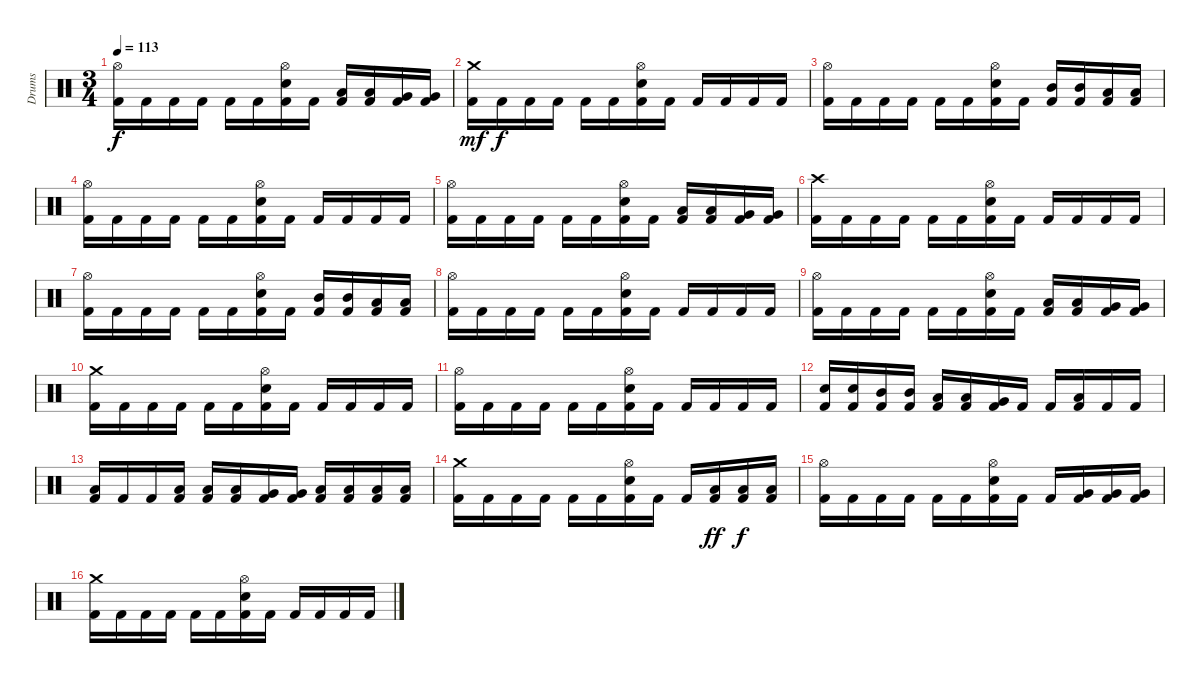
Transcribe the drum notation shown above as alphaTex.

\track ("Drums" "Drums") {instrument percussion}
\staff {score}
\articulation defaults
\ts (3 4)
\tempo 113
\clef neutral
\ks c
("Hi-Hat (open)" "Kick (hit) 2").16{dy f} "Kick (hit) 2".16 "Kick (hit) 2".16 "Kick (hit) 2".16 "Kick (hit) 2".16 "Kick (hit) 2".16 ("Hi-Hat (open)" "Electric Snare (hit)" "Kick (hit) 2").16 "Kick (hit) 2".16 ("Low Tom (hit)" "Kick (hit) 2").16 ("Low Tom (hit)" "Kick (hit) 2").16 ("Very Low Tom (hit)" "Kick (hit) 2").16 ("Very Low Tom (hit)" "Kick (hit) 2").16 |
("Crash medium (hit)" "Kick (hit) 2").16{dy mf} "Kick (hit) 2".16{dy f} "Kick (hit) 2".16 "Kick (hit) 2".16 "Kick (hit) 2".16 "Kick (hit) 2".16 ("Hi-Hat (open)" "Electric Snare (hit)" "Kick (hit) 2").16 "Kick (hit) 2".16 "Kick (hit) 2".16 "Kick (hit) 2".16 "Kick (hit) 2".16 "Kick (hit) 2".16 |
("Hi-Hat (open)" "Kick (hit) 2").16 "Kick (hit) 2".16 "Kick (hit) 2".16 "Kick (hit) 2".16 "Kick (hit) 2".16 "Kick (hit) 2".16 ("Hi-Hat (open)" "Electric Snare (hit)" "Kick (hit) 2").16 "Kick (hit) 2".16 ("Mid Tom (hit)" "Kick (hit) 2").16 ("Mid Tom (hit)" "Kick (hit) 2").16 ("Low Tom (hit)" "Kick (hit) 2").16 ("Low Tom (hit)" "Kick (hit) 2").16 |
("Hi-Hat (open)" "Kick (hit) 2").16 "Kick (hit) 2".16 "Kick (hit) 2".16 "Kick (hit) 2".16 "Kick (hit) 2".16 "Kick (hit) 2".16 ("Hi-Hat (open)" "Electric Snare (hit)" "Kick (hit) 2").16 "Kick (hit) 2".16 "Kick (hit) 2".16 "Kick (hit) 2".16 "Kick (hit) 2".16 "Kick (hit) 2".16 |
("Hi-Hat (open)" "Kick (hit) 2").16 "Kick (hit) 2".16 "Kick (hit) 2".16 "Kick (hit) 2".16 "Kick (hit) 2".16 "Kick (hit) 2".16 ("Hi-Hat (open)" "Electric Snare (hit)" "Kick (hit) 2").16 "Kick (hit) 2".16 ("Low Tom (hit)" "Kick (hit) 2").16 ("Low Tom (hit)" "Kick (hit) 2").16 ("Very Low Tom (hit)" "Kick (hit) 2").16 ("Very Low Tom (hit)" "Kick (hit) 2").16 |
("Crash high (hit)" "Kick (hit) 2").16 "Kick (hit) 2".16 "Kick (hit) 2".16 "Kick (hit) 2".16 "Kick (hit) 2".16 "Kick (hit) 2".16 ("Hi-Hat (open)" "Electric Snare (hit)" "Kick (hit) 2").16 "Kick (hit) 2".16 "Kick (hit) 2".16 "Kick (hit) 2".16 "Kick (hit) 2".16 "Kick (hit) 2".16 |
("Hi-Hat (open)" "Kick (hit) 2").16 "Kick (hit) 2".16 "Kick (hit) 2".16 "Kick (hit) 2".16 "Kick (hit) 2".16 "Kick (hit) 2".16 ("Hi-Hat (open)" "Electric Snare (hit)" "Kick (hit) 2").16 "Kick (hit) 2".16 ("Mid Tom (hit)" "Kick (hit) 2").16 ("Mid Tom (hit)" "Kick (hit) 2").16 ("Low Tom (hit)" "Kick (hit) 2").16 ("Low Tom (hit)" "Kick (hit) 2").16 |
("Hi-Hat (open)" "Kick (hit) 2").16 "Kick (hit) 2".16 "Kick (hit) 2".16 "Kick (hit) 2".16 "Kick (hit) 2".16 "Kick (hit) 2".16 ("Hi-Hat (open)" "Electric Snare (hit)" "Kick (hit) 2").16 "Kick (hit) 2".16 "Kick (hit) 2".16 "Kick (hit) 2".16 "Kick (hit) 2".16 "Kick (hit) 2".16 |
("Hi-Hat (open)" "Kick (hit) 2").16 "Kick (hit) 2".16 "Kick (hit) 2".16 "Kick (hit) 2".16 "Kick (hit) 2".16 "Kick (hit) 2".16 ("Hi-Hat (open)" "Electric Snare (hit)" "Kick (hit) 2").16 "Kick (hit) 2".16 ("Low Tom (hit)" "Kick (hit) 2").16 ("Low Tom (hit)" "Kick (hit) 2").16 ("Very Low Tom (hit)" "Kick (hit) 2").16 ("Very Low Tom (hit)" "Kick (hit) 2").16 |
("Crash medium (hit)" "Kick (hit) 2").16 "Kick (hit) 2".16 "Kick (hit) 2".16 "Kick (hit) 2".16 "Kick (hit) 2".16 "Kick (hit) 2".16 ("Hi-Hat (open)" "Electric Snare (hit)" "Kick (hit) 2").16 "Kick (hit) 2".16 "Kick (hit) 2".16 "Kick (hit) 2".16 "Kick (hit) 2".16 "Kick (hit) 2".16 |
("Hi-Hat (open)" "Kick (hit) 2").16 "Kick (hit) 2".16 "Kick (hit) 2".16 "Kick (hit) 2".16 "Kick (hit) 2".16 "Kick (hit) 2".16 ("Hi-Hat (open)" "Electric Snare (hit)" "Kick (hit) 2").16 "Kick (hit) 2".16 "Kick (hit) 2".16 "Kick (hit) 2".16 "Kick (hit) 2".16 "Kick (hit) 2".16 |
("Electric Snare (hit)" "Kick (hit) 2").16 ("Electric Snare (hit)" "Kick (hit) 2").16 ("Mid Tom (hit)" "Kick (hit) 2").16 ("Mid Tom (hit)" "Kick (hit) 2").16 ("Low Tom (hit)" "Kick (hit) 2").16 ("Low Tom (hit)" "Kick (hit) 2").16 ("Very Low Tom (hit)" "Kick (hit) 2").16 "Kick (hit) 2".16 "Kick (hit) 2".16 ("Low Floor Tom (hit)" "Kick (hit) 2").16 "Kick (hit) 2".16 "Kick (hit) 2".16 |
("Low Floor Tom (hit)" "Kick (hit) 2").16 "Kick (hit) 2".16 "Kick (hit) 2".16 ("Low Floor Tom (hit)" "Kick (hit) 2").16 ("Low Tom (hit)" "Kick (hit) 2").16 ("Low Tom (hit)" "Kick (hit) 2").16 ("Very Low Tom (hit)" "Kick (hit) 2").16 ("Very Low Tom (hit)" "Kick (hit) 2").16 ("Low Tom (hit)" "Kick (hit) 2").16 ("Low Tom (hit)" "Kick (hit) 2").16 ("Low Floor Tom (hit)" "Kick (hit) 2").16 ("Low Floor Tom (hit)" "Kick (hit) 2").16 |
("Crash medium (hit)" "Kick (hit) 2").16 "Kick (hit) 2".16 "Kick (hit) 2".16 "Kick (hit) 2".16 "Kick (hit) 2".16 "Kick (hit) 2".16 ("Hi-Hat (open)" "Electric Snare (hit)" "Kick (hit) 2").16 "Kick (hit) 2".16 "Kick (hit) 2".16 ("Low Tom (hit)" "Kick (hit) 2").16{dy ff} ("Low Tom (hit)" "Kick (hit) 2").16{dy f} ("Low Tom (hit)" "Kick (hit) 2").16 |
("Hi-Hat (open)" "Kick (hit) 2").16 "Kick (hit) 2".16 "Kick (hit) 2".16 "Kick (hit) 2".16 "Kick (hit) 2".16 "Kick (hit) 2".16 ("Hi-Hat (open)" "Electric Snare (hit)" "Kick (hit) 2").16 "Kick (hit) 2".16 "Kick (hit) 2".16 ("Very Low Tom (hit)" "Kick (hit) 2").16 ("Very Low Tom (hit)" "Kick (hit) 2").16 ("Very Low Tom (hit)" "Kick (hit) 2").16 |
("Crash medium (hit)" "Kick (hit) 2").16 "Kick (hit) 2".16 "Kick (hit) 2".16 "Kick (hit) 2".16 "Kick (hit) 2".16 "Kick (hit) 2".16 ("Hi-Hat (open)" "Electric Snare (hit)" "Kick (hit) 2").16 "Kick (hit) 2".16 "Kick (hit) 2".16 "Kick (hit) 2".16 "Kick (hit) 2".16 "Kick (hit) 2".16
